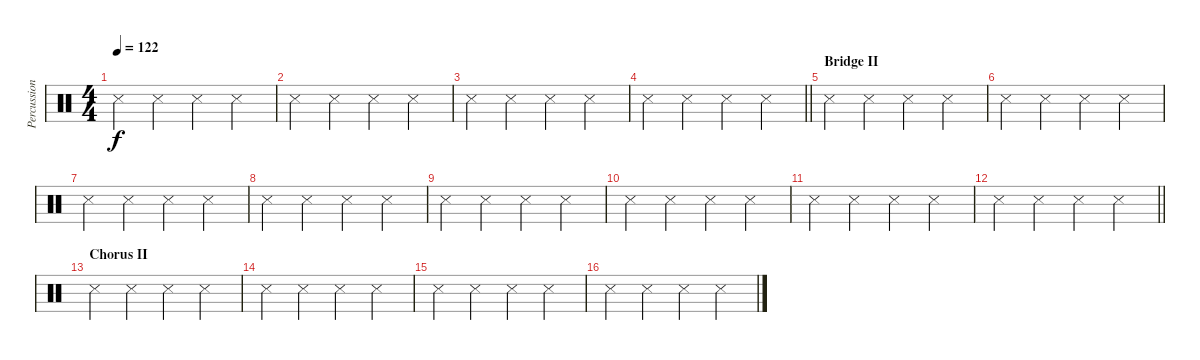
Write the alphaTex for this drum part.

\track ("Percussion" "Percussion") {instrument percussion}
\staff {score}
\articulation defaults
\ts (4 4)
\tempo 122
\clef neutral
\ks c "Snare (side stick) 3".4{dy f} "Metronome (hit)".4 "Metronome (hit)".4 "Metronome (hit)".4
|
"Snare (side stick) 3".4 "Metronome (hit)".4 "Metronome (hit)".4 "Metronome (hit)".4 |
"Snare (side stick) 3".4 "Metronome (hit)".4 "Metronome (hit)".4 "Metronome (hit)".4 |
\barLineRight lightlight "Snare (side stick) 3".4 "Metronome (hit)".4 "Metronome (hit)".4 "Metronome (hit)".4
|
\section ("" "Bridge II")
"Snare (side stick) 3".4 "Metronome (hit)".4 "Metronome (hit)".4 "Metronome (hit)".4 |
"Snare (side stick) 3".4 "Metronome (hit)".4 "Metronome (hit)".4 "Metronome (hit)".4 |
"Snare (side stick) 3".4 "Metronome (hit)".4 "Metronome (hit)".4 "Metronome (hit)".4 |
"Snare (side stick) 3".4 "Metronome (hit)".4 "Metronome (hit)".4 "Metronome (hit)".4 |
"Snare (side stick) 3".4 "Metronome (hit)".4 "Metronome (hit)".4 "Metronome (hit)".4 |
"Snare (side stick) 3".4 "Metronome (hit)".4 "Metronome (hit)".4 "Metronome (hit)".4 |
"Snare (side stick) 3".4 "Metronome (hit)".4 "Metronome (hit)".4 "Metronome (hit)".4 |
\barLineRight lightlight "Snare (side stick) 3".4 "Metronome (hit)".4 "Metronome (hit)".4 "Metronome (hit)".4
|
\section ("" "Chorus II")
"Snare (side stick) 3".4 "Metronome (hit)".4 "Metronome (hit)".4 "Metronome (hit)".4 |
"Snare (side stick) 3".4 "Metronome (hit)".4 "Metronome (hit)".4 "Metronome (hit)".4 |
"Snare (side stick) 3".4 "Metronome (hit)".4 "Metronome (hit)".4 "Metronome (hit)".4 |
"Snare (side stick) 3".4 "Metronome (hit)".4 "Metronome (hit)".4 "Metronome (hit)".4
